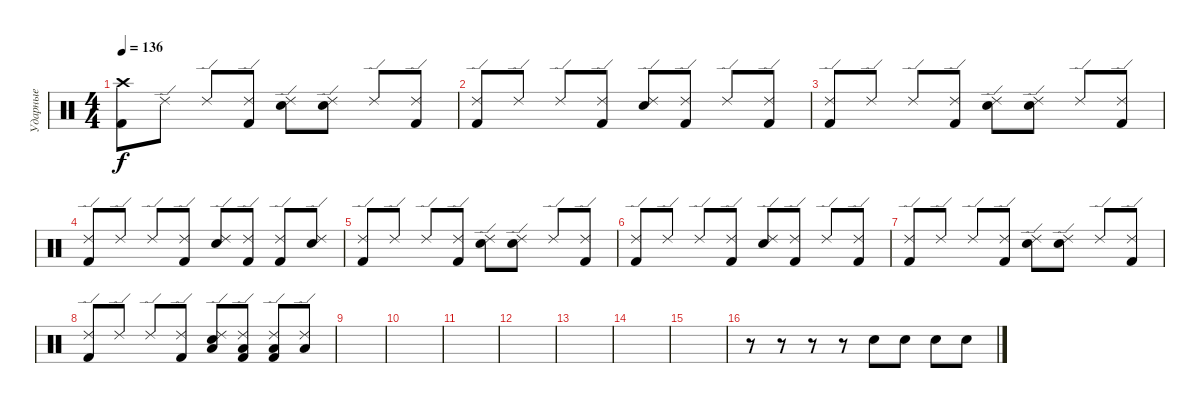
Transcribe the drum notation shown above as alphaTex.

\track ("Ударные" "Ударные") {instrument percussion}
\staff {score}
\articulation defaults
\ts (4 4)
\tempo 136
\clef neutral
\ks c
("Crash high (hit)" "Kick (hit) 2").8{dy f} "Ride (edge) 2".8 "Ride (edge) 2".8 ("Ride (edge) 2" "Kick (hit) 2").8 ("Ride (edge) 2" "Snare (hit) 2").8 ("Ride (edge) 2" "Snare (hit) 2").8 "Ride (edge) 2".8 ("Ride (edge) 2" "Kick (hit) 2").8 |
("Ride (edge) 2" "Kick (hit) 2").8 "Ride (edge) 2".8 "Ride (edge) 2".8 ("Ride (edge) 2" "Kick (hit) 2").8 ("Ride (edge) 2" "Snare (hit) 2").8 ("Ride (edge) 2" "Kick (hit) 2").8 "Ride (edge) 2".8 ("Ride (edge) 2" "Kick (hit) 2").8 |
("Ride (edge) 2" "Kick (hit) 2").8 "Ride (edge) 2".8 "Ride (edge) 2".8 ("Ride (edge) 2" "Kick (hit) 2").8 ("Ride (edge) 2" "Snare (hit) 2").8 ("Ride (edge) 2" "Snare (hit) 2").8 "Ride (edge) 2".8 ("Ride (edge) 2" "Kick (hit) 2").8 |
("Ride (edge) 2" "Kick (hit) 2").8 "Ride (edge) 2".8 "Ride (edge) 2".8 ("Ride (edge) 2" "Kick (hit) 2").8 ("Ride (edge) 2" "Snare (hit) 2").8 ("Ride (edge) 2" "Kick (hit) 2").8 ("Ride (edge) 2" "Kick (hit) 2").8 ("Ride (edge) 2" "Snare (hit) 2").8 |
("Ride (edge) 2" "Kick (hit) 2").8 "Ride (edge) 2".8 "Ride (edge) 2".8 ("Ride (edge) 2" "Kick (hit) 2").8 ("Ride (edge) 2" "Snare (hit) 2").8 ("Ride (edge) 2" "Snare (hit) 2").8 "Ride (edge) 2".8 ("Ride (edge) 2" "Kick (hit) 2").8 |
("Ride (edge) 2" "Kick (hit) 2").8 "Ride (edge) 2".8 "Ride (edge) 2".8 ("Ride (edge) 2" "Kick (hit) 2").8 ("Ride (edge) 2" "Snare (hit) 2").8 ("Ride (edge) 2" "Kick (hit) 2").8 "Ride (edge) 2".8 ("Ride (edge) 2" "Kick (hit) 2").8 |
("Ride (edge) 2" "Kick (hit) 2").8 "Ride (edge) 2".8 "Ride (edge) 2".8 ("Ride (edge) 2" "Kick (hit) 2").8 ("Ride (edge) 2" "Snare (hit) 2").8 ("Ride (edge) 2" "Snare (hit) 2").8 "Ride (edge) 2".8 ("Ride (edge) 2" "Kick (hit) 2").8 |
("Ride (edge) 2" "Kick (hit) 2").8 "Ride (edge) 2".8 "Ride (edge) 2".8 ("Ride (edge) 2" "Kick (hit) 2").8 ("Ride (edge) 2" "Snare (hit) 2" "Low Tom (hit)").8 ("Ride (edge) 2" "Low Tom (hit)" "Kick (hit) 2").8 ("Ride (edge) 2" "Low Tom (hit)" "Kick (hit) 2").8 ("Ride (edge) 2" "Low Tom (hit)").8 |
|
|
|
|
|
|
|
r.8 r.8 r.8 r.8 "Snare (hit) 2".8 "Snare (hit) 2".8 "Snare (hit) 2".8 "Snare (hit) 2".8
